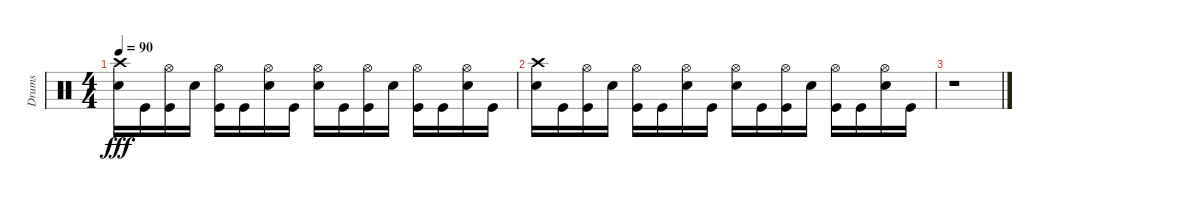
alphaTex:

\track ("Drums" "Drums") {instrument percussion}
\staff {score}
\articulation defaults
\ts (4 4)
\tempo 90
\clef neutral
\ks c
("Crash high (hit)" "Snare (hit) 2").16{dy fff} "Kick (hit)".16 ("Kick (hit)" "Hi-Hat (open)").16 "Snare (hit) 2".16 ("Kick (hit)" "Hi-Hat (open)").16 "Kick (hit)".16 ("Snare (hit) 2" "Hi-Hat (open)").16 "Kick (hit)".16 ("Hi-Hat (open)" "Snare (hit) 2").16 "Kick (hit)".16 ("Kick (hit)" "Hi-Hat (open)").16 "Snare (hit) 2".16 ("Kick (hit)" "Hi-Hat (open)").16 "Kick (hit)".16 ("Snare (hit) 2" "Hi-Hat (open)").16 "Kick (hit)".16 |
("Crash high (hit)" "Snare (hit) 2").16 "Kick (hit)".16 ("Kick (hit)" "Hi-Hat (open)").16 "Snare (hit) 2".16 ("Kick (hit)" "Hi-Hat (open)").16 "Kick (hit)".16 ("Snare (hit) 2" "Hi-Hat (open)").16 "Kick (hit)".16 ("Hi-Hat (open)" "Snare (hit) 2").16 "Kick (hit)".16 ("Kick (hit)" "Hi-Hat (open)").16 "Snare (hit) 2".16 ("Kick (hit)" "Hi-Hat (open)").16 "Kick (hit)".16 ("Snare (hit) 2" "Hi-Hat (open)").16 "Kick (hit)".16 |
r.1
